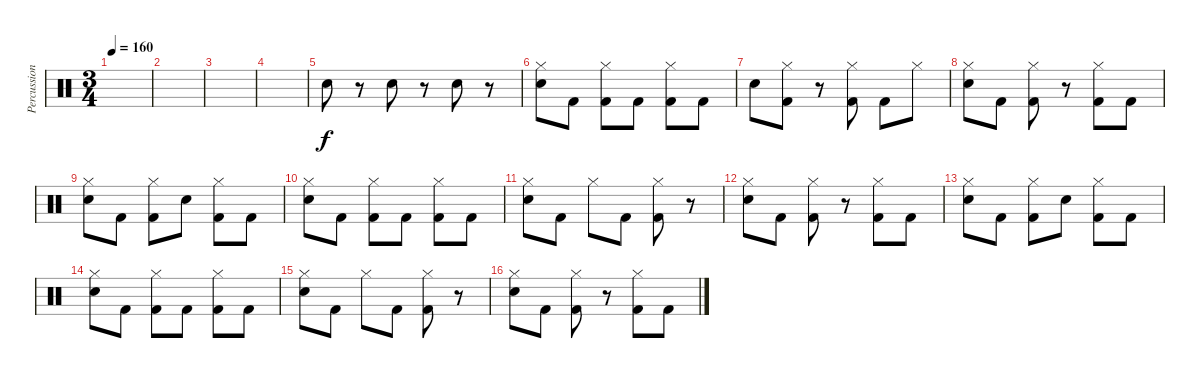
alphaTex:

\track ("Percussion" "Percussion") {instrument percussion}
\staff {score}
\articulation defaults
\ts (3 4)
\tempo 160
\clef neutral
\ks c
|
|
|
|
"Electric Snare (hit)".8 r.8 "Electric Snare (hit)".8 r.8 "Electric Snare (hit)".8 r.8 |
("Hi-Hat (closed)" "Electric Snare (hit)").8 "Kick (hit) 2".8 ("Hi-Hat (closed)" "Kick (hit) 2").8 "Kick (hit) 2".8 ("Hi-Hat (closed)" "Kick (hit) 2").8 "Kick (hit) 2".8 |
"Electric Snare (hit)".8 ("Hi-Hat (closed)" "Kick (hit) 2").8 r.8 ("Hi-Hat (closed)" "Kick (hit) 2").8 "Kick (hit) 2".8 "Hi-Hat (closed)".8 |
("Hi-Hat (closed)" "Electric Snare (hit)").8 "Kick (hit) 2".8 ("Hi-Hat (closed)" "Kick (hit) 2").8 r.8 ("Hi-Hat (closed)" "Kick (hit) 2").8 "Kick (hit) 2".8 |
("Hi-Hat (closed)" "Electric Snare (hit)").8 "Kick (hit) 2".8 ("Hi-Hat (closed)" "Kick (hit) 2").8 "Electric Snare (hit)".8 ("Hi-Hat (closed)" "Kick (hit) 2").8 "Kick (hit) 2".8 |
("Hi-Hat (closed)" "Electric Snare (hit)").8 "Kick (hit) 2".8 ("Hi-Hat (closed)" "Kick (hit) 2").8 "Kick (hit) 2".8 ("Hi-Hat (closed)" "Kick (hit) 2").8 "Kick (hit) 2".8 |
("Hi-Hat (closed)" "Electric Snare (hit)").8 "Kick (hit) 2".8 "Hi-Hat (closed)".8 "Kick (hit) 2".8 ("Hi-Hat (closed)" "Kick (hit) 2").8 r.8 |
("Hi-Hat (closed)" "Electric Snare (hit)").8 "Kick (hit) 2".8 ("Hi-Hat (closed)" "Kick (hit) 2").8 r.8 ("Hi-Hat (closed)" "Kick (hit) 2").8 "Kick (hit) 2".8 |
("Hi-Hat (closed)" "Electric Snare (hit)").8 "Kick (hit) 2".8 ("Hi-Hat (closed)" "Kick (hit) 2").8 "Electric Snare (hit)".8 ("Hi-Hat (closed)" "Kick (hit) 2").8 "Kick (hit) 2".8 |
("Hi-Hat (closed)" "Electric Snare (hit)").8 "Kick (hit) 2".8 ("Hi-Hat (closed)" "Kick (hit) 2").8 "Kick (hit) 2".8 ("Hi-Hat (closed)" "Kick (hit) 2").8 "Kick (hit) 2".8 |
("Hi-Hat (closed)" "Electric Snare (hit)").8 "Kick (hit) 2".8 "Hi-Hat (closed)".8 "Kick (hit) 2".8 ("Hi-Hat (closed)" "Kick (hit) 2").8 r.8 |
("Hi-Hat (closed)" "Electric Snare (hit)").8 "Kick (hit) 2".8 ("Hi-Hat (closed)" "Kick (hit) 2").8 r.8 ("Hi-Hat (closed)" "Kick (hit) 2").8 "Kick (hit) 2".8
